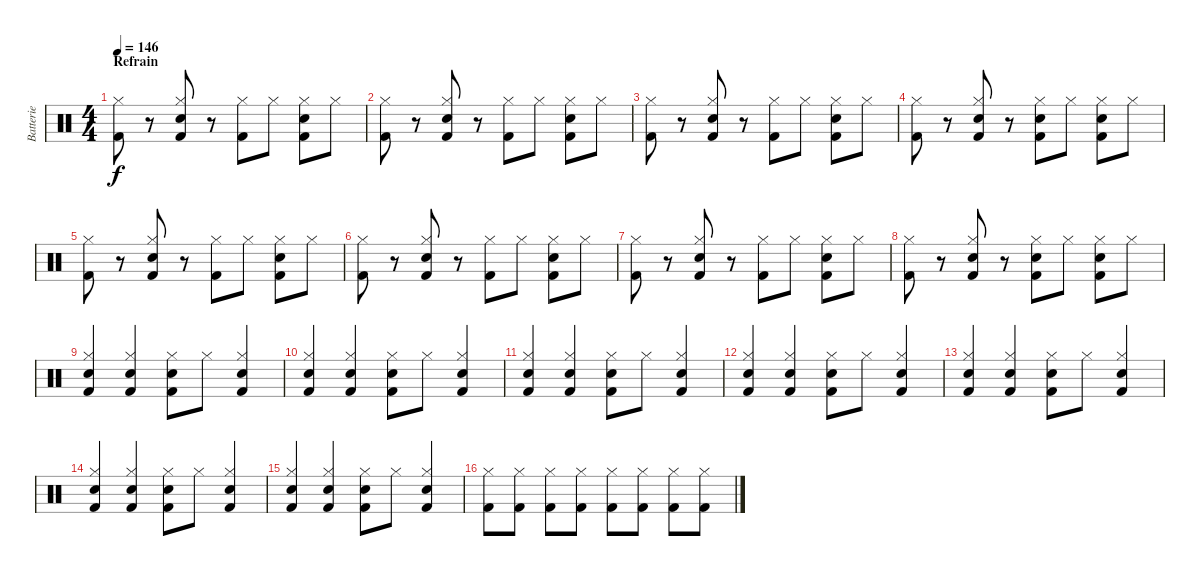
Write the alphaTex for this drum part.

\track ("Batterie" "Batterie") {instrument percussion}
\staff {score}
\articulation defaults
\ts (4 4)
\section ("" "Refrain")
\tempo 146
\clef neutral
\ks c
("Kick (hit) 2" "Hi-Hat (closed)").8{dy f} r.8 ("Kick (hit) 2" "Snare (hit) 2" "Hi-Hat (closed)").8 r.8 ("Kick (hit) 2" "Hi-Hat (closed)").8 "Hi-Hat (closed)".8 ("Kick (hit) 2" "Snare (hit) 2" "Hi-Hat (closed)").8 "Hi-Hat (closed)".8 |
("Kick (hit) 2" "Hi-Hat (closed)").8 r.8 ("Kick (hit) 2" "Snare (hit) 2" "Hi-Hat (closed)").8 r.8 ("Kick (hit) 2" "Hi-Hat (closed)").8 "Hi-Hat (closed)".8 ("Kick (hit) 2" "Snare (hit) 2" "Hi-Hat (closed)").8 "Hi-Hat (closed)".8 |
("Kick (hit) 2" "Hi-Hat (closed)").8 r.8 ("Kick (hit) 2" "Snare (hit) 2" "Hi-Hat (closed)").8 r.8 ("Kick (hit) 2" "Hi-Hat (closed)").8 "Hi-Hat (closed)".8 ("Kick (hit) 2" "Snare (hit) 2" "Hi-Hat (closed)").8 "Hi-Hat (closed)".8 |
("Kick (hit) 2" "Hi-Hat (closed)").8 r.8 ("Kick (hit) 2" "Snare (hit) 2" "Hi-Hat (closed)").8 r.8 ("Kick (hit) 2" "Snare (hit) 2" "Hi-Hat (closed)").8 "Hi-Hat (closed)".8 ("Kick (hit) 2" "Snare (hit) 2" "Hi-Hat (closed)").8 "Hi-Hat (closed)".8 |
("Kick (hit) 2" "Hi-Hat (closed)").8 r.8 ("Kick (hit) 2" "Snare (hit) 2" "Hi-Hat (closed)").8 r.8 ("Kick (hit) 2" "Hi-Hat (closed)").8 "Hi-Hat (closed)".8 ("Kick (hit) 2" "Snare (hit) 2" "Hi-Hat (closed)").8 "Hi-Hat (closed)".8 |
("Kick (hit) 2" "Hi-Hat (closed)").8 r.8 ("Kick (hit) 2" "Snare (hit) 2" "Hi-Hat (closed)").8 r.8 ("Kick (hit) 2" "Hi-Hat (closed)").8 "Hi-Hat (closed)".8 ("Kick (hit) 2" "Snare (hit) 2" "Hi-Hat (closed)").8 "Hi-Hat (closed)".8 |
("Kick (hit) 2" "Hi-Hat (closed)").8 r.8 ("Kick (hit) 2" "Snare (hit) 2" "Hi-Hat (closed)").8 r.8 ("Kick (hit) 2" "Hi-Hat (closed)").8 "Hi-Hat (closed)".8 ("Kick (hit) 2" "Snare (hit) 2" "Hi-Hat (closed)").8 "Hi-Hat (closed)".8 |
("Kick (hit) 2" "Hi-Hat (closed)").8 r.8 ("Kick (hit) 2" "Snare (hit) 2" "Hi-Hat (closed)").8 r.8 ("Kick (hit) 2" "Snare (hit) 2" "Hi-Hat (closed)").8 "Hi-Hat (closed)".8 ("Kick (hit) 2" "Snare (hit) 2" "Hi-Hat (closed)").8 "Hi-Hat (closed)".8 |
("Kick (hit) 2" "Snare (hit) 2" "Hi-Hat (closed)").4 ("Kick (hit) 2" "Snare (hit) 2" "Hi-Hat (closed)").4 ("Kick (hit) 2" "Snare (hit) 2" "Hi-Hat (closed)").8 "Hi-Hat (closed)".8 ("Kick (hit) 2" "Snare (hit) 2" "Hi-Hat (closed)").4 |
("Kick (hit) 2" "Snare (hit) 2" "Hi-Hat (closed)").4 ("Kick (hit) 2" "Snare (hit) 2" "Hi-Hat (closed)").4 ("Kick (hit) 2" "Snare (hit) 2" "Hi-Hat (closed)").8 "Hi-Hat (closed)".8 ("Kick (hit) 2" "Snare (hit) 2" "Hi-Hat (closed)").4 |
("Kick (hit) 2" "Snare (hit) 2" "Hi-Hat (closed)").4 ("Kick (hit) 2" "Snare (hit) 2" "Hi-Hat (closed)").4 ("Kick (hit) 2" "Snare (hit) 2" "Hi-Hat (closed)").8 "Hi-Hat (closed)".8 ("Kick (hit) 2" "Snare (hit) 2" "Hi-Hat (closed)").4 |
("Kick (hit) 2" "Snare (hit) 2" "Hi-Hat (closed)").4 ("Kick (hit) 2" "Snare (hit) 2" "Hi-Hat (closed)").4 ("Kick (hit) 2" "Snare (hit) 2" "Hi-Hat (closed)").8 "Hi-Hat (closed)".8 ("Kick (hit) 2" "Snare (hit) 2" "Hi-Hat (closed)").4 |
("Kick (hit) 2" "Snare (hit) 2" "Hi-Hat (closed)").4 ("Kick (hit) 2" "Snare (hit) 2" "Hi-Hat (closed)").4 ("Kick (hit) 2" "Snare (hit) 2" "Hi-Hat (closed)").8 "Hi-Hat (closed)".8 ("Kick (hit) 2" "Snare (hit) 2" "Hi-Hat (closed)").4 |
("Kick (hit) 2" "Snare (hit) 2" "Hi-Hat (closed)").4 ("Kick (hit) 2" "Snare (hit) 2" "Hi-Hat (closed)").4 ("Kick (hit) 2" "Snare (hit) 2" "Hi-Hat (closed)").8 "Hi-Hat (closed)".8 ("Kick (hit) 2" "Snare (hit) 2" "Hi-Hat (closed)").4 |
("Kick (hit) 2" "Snare (hit) 2" "Hi-Hat (closed)").4 ("Kick (hit) 2" "Snare (hit) 2" "Hi-Hat (closed)").4 ("Kick (hit) 2" "Snare (hit) 2" "Hi-Hat (closed)").8 "Hi-Hat (closed)".8 ("Kick (hit) 2" "Snare (hit) 2" "Hi-Hat (closed)").4 |
("Kick (hit) 2" "Hi-Hat (closed)").8 ("Kick (hit) 2" "Hi-Hat (closed)").8 ("Kick (hit) 2" "Hi-Hat (closed)").8 ("Kick (hit) 2" "Hi-Hat (closed)").8 ("Kick (hit) 2" "Hi-Hat (closed)").8 ("Kick (hit) 2" "Hi-Hat (closed)").8 ("Kick (hit) 2" "Hi-Hat (closed)").8 ("Kick (hit) 2" "Hi-Hat (closed)").8
